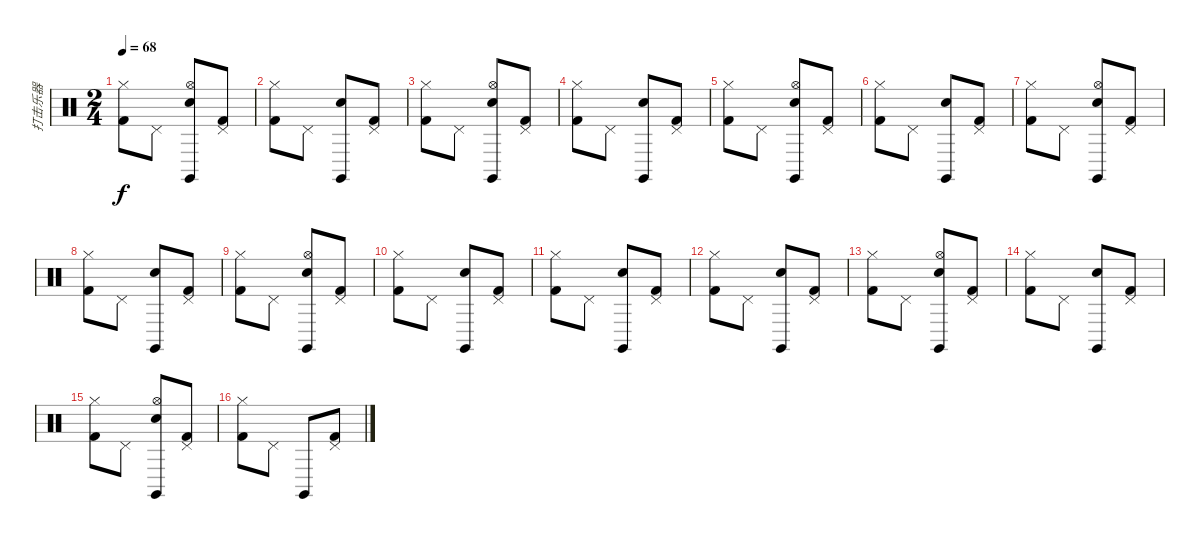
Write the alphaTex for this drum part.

\track ("打击乐器" "打击乐器") {instrument percussion}
\staff {score}
\articulation defaults
\ts (2 4)
\tempo 68
\clef neutral
\ks c
("Kick (hit) 2" "Hi-Hat (closed)").8{dy f} "Pedal Hi-Hat (hit)".8 ("Claves (hit)" "Hi-Hat (open)" "Electric Snare (hit)").8 ("Kick (hit) 2" "Pedal Hi-Hat (hit)").8 |
("Kick (hit) 2" "Hi-Hat (closed)").8 "Pedal Hi-Hat (hit)".8 ("Claves (hit)" "Electric Snare (hit)").8 ("Kick (hit) 2" "Pedal Hi-Hat (hit)").8 |
("Kick (hit) 2" "Hi-Hat (closed)").8 "Pedal Hi-Hat (hit)".8 ("Claves (hit)" "Hi-Hat (open)" "Electric Snare (hit)").8 ("Kick (hit) 2" "Pedal Hi-Hat (hit)").8 |
("Kick (hit) 2" "Hi-Hat (closed)").8 "Pedal Hi-Hat (hit)".8 ("Claves (hit)" "Electric Snare (hit)").8 ("Kick (hit) 2" "Pedal Hi-Hat (hit)").8 |
("Kick (hit) 2" "Hi-Hat (closed)").8 "Pedal Hi-Hat (hit)".8 ("Claves (hit)" "Hi-Hat (open)" "Electric Snare (hit)").8 ("Kick (hit) 2" "Pedal Hi-Hat (hit)").8 |
("Kick (hit) 2" "Hi-Hat (closed)").8 "Pedal Hi-Hat (hit)".8 ("Claves (hit)" "Electric Snare (hit)").8 ("Kick (hit) 2" "Pedal Hi-Hat (hit)").8 |
("Kick (hit) 2" "Hi-Hat (closed)").8 "Pedal Hi-Hat (hit)".8 ("Claves (hit)" "Hi-Hat (open)" "Electric Snare (hit)").8 ("Kick (hit) 2" "Pedal Hi-Hat (hit)").8 |
("Kick (hit) 2" "Hi-Hat (closed)").8 "Pedal Hi-Hat (hit)".8 ("Claves (hit)" "Electric Snare (hit)").8 ("Kick (hit) 2" "Pedal Hi-Hat (hit)").8 |
("Kick (hit) 2" "Hi-Hat (closed)").8 "Pedal Hi-Hat (hit)".8 ("Claves (hit)" "Hi-Hat (open)" "Electric Snare (hit)").8 ("Kick (hit) 2" "Pedal Hi-Hat (hit)").8 |
("Kick (hit) 2" "Hi-Hat (closed)").8 "Pedal Hi-Hat (hit)".8 ("Claves (hit)" "Electric Snare (hit)").8 ("Kick (hit) 2" "Pedal Hi-Hat (hit)").8 |
("Kick (hit) 2" "Hi-Hat (closed)").8 "Pedal Hi-Hat (hit)".8 ("Claves (hit)" "Electric Snare (hit)").8 ("Kick (hit) 2" "Pedal Hi-Hat (hit)").8 |
("Kick (hit) 2" "Hi-Hat (closed)").8 "Pedal Hi-Hat (hit)".8 ("Claves (hit)" "Electric Snare (hit)").8 ("Kick (hit) 2" "Pedal Hi-Hat (hit)").8 |
("Kick (hit) 2" "Hi-Hat (closed)").8 "Pedal Hi-Hat (hit)".8 ("Claves (hit)" "Hi-Hat (open)" "Electric Snare (hit)").8 ("Kick (hit) 2" "Pedal Hi-Hat (hit)").8 |
("Kick (hit) 2" "Hi-Hat (closed)").8 "Pedal Hi-Hat (hit)".8 ("Claves (hit)" "Electric Snare (hit)").8 ("Kick (hit) 2" "Pedal Hi-Hat (hit)").8 |
("Kick (hit) 2" "Hi-Hat (closed)").8 "Pedal Hi-Hat (hit)".8 ("Claves (hit)" "Hi-Hat (open)" "Electric Snare (hit)").8 ("Kick (hit) 2" "Pedal Hi-Hat (hit)").8 |
("Kick (hit) 2" "Hi-Hat (closed)").8 "Pedal Hi-Hat (hit)".8 "Claves (hit)".8 ("Kick (hit) 2" "Pedal Hi-Hat (hit)").8
